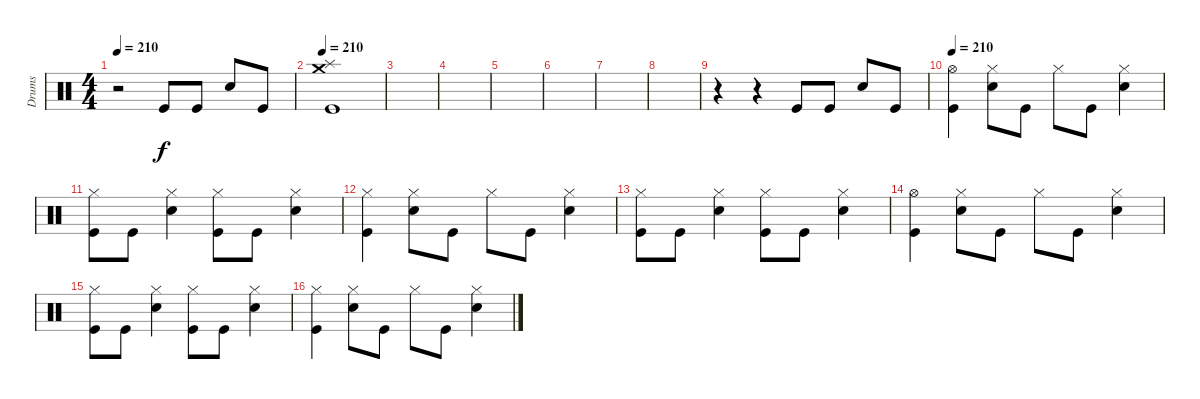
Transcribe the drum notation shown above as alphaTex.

\track ("Drums" "Drums") {instrument percussion}
\staff {score}
\articulation defaults
\ts (4 4)
\tempo 210
\clef neutral
\ks c
r.2{dy f} "Kick (hit)".8 "Kick (hit)".8 "Electric Snare (hit)".8 "Kick (hit)".8 |
\tempo 210
("Crash medium (hit)" "Splash (hit)" "Kick (hit)").1 |
|
|
|
|
|
|
r.4 r.4 "Kick (hit)".8 "Kick (hit)".8 "Electric Snare (hit)".8 "Kick (hit)".8 |
\tempo 210
("Hi-Hat (open)" "Kick (hit)").4 ("Hi-Hat (closed)" "Electric Snare (hit)").8 "Kick (hit)".8 "Hi-Hat (closed)".8 "Kick (hit)".8 ("Hi-Hat (closed)" "Electric Snare (hit)").4 |
("Hi-Hat (closed)" "Kick (hit)").8 "Kick (hit)".8 ("Hi-Hat (closed)" "Electric Snare (hit)").4 ("Hi-Hat (closed)" "Kick (hit)").8 "Kick (hit)".8 ("Hi-Hat (closed)" "Electric Snare (hit)").4 |
("Hi-Hat (closed)" "Kick (hit)").4 ("Hi-Hat (closed)" "Electric Snare (hit)").8 "Kick (hit)".8 "Hi-Hat (closed)".8 "Kick (hit)".8 ("Hi-Hat (closed)" "Electric Snare (hit)").4 |
("Hi-Hat (closed)" "Kick (hit)").8 "Kick (hit)".8 ("Hi-Hat (closed)" "Electric Snare (hit)").4 ("Hi-Hat (closed)" "Kick (hit)").8 "Kick (hit)".8 ("Hi-Hat (closed)" "Electric Snare (hit)").4 |
("Hi-Hat (open)" "Kick (hit)").4 ("Hi-Hat (closed)" "Electric Snare (hit)").8 "Kick (hit)".8 "Hi-Hat (closed)".8 "Kick (hit)".8 ("Hi-Hat (closed)" "Electric Snare (hit)").4 |
("Hi-Hat (closed)" "Kick (hit)").8 "Kick (hit)".8 ("Hi-Hat (closed)" "Electric Snare (hit)").4 ("Hi-Hat (closed)" "Kick (hit)").8 "Kick (hit)".8 ("Hi-Hat (closed)" "Electric Snare (hit)").4 |
("Hi-Hat (closed)" "Kick (hit)").4 ("Hi-Hat (closed)" "Electric Snare (hit)").8 "Kick (hit)".8 "Hi-Hat (closed)".8 "Kick (hit)".8 ("Hi-Hat (closed)" "Electric Snare (hit)").4
